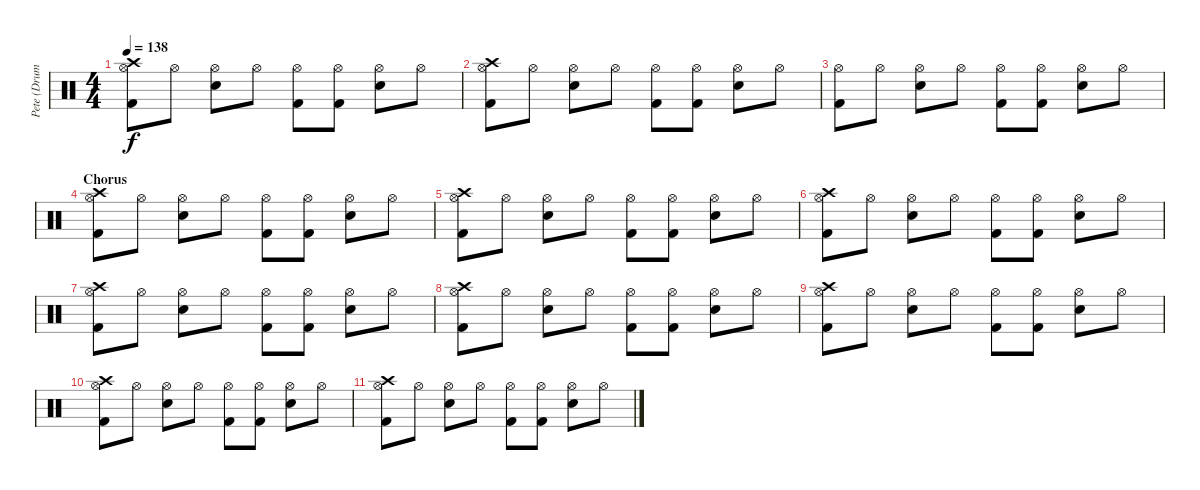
\track ("Pete (Drums)" "Pete (Drum") {instrument percussion}
\staff {score}
\articulation defaults
\ts (4 4)
\tempo 138
\clef neutral
\ks c
("Hi-Hat (open)" "Crash high (hit)" "Kick (hit) 2").8{dy f} "Hi-Hat (open)".8 ("Hi-Hat (open)" "Snare (hit) 2").8 "Hi-Hat (open)".8 ("Hi-Hat (open)" "Kick (hit) 2").8 ("Hi-Hat (open)" "Kick (hit) 2").8 ("Hi-Hat (open)" "Snare (hit) 2").8 "Hi-Hat (open)".8 |
("Hi-Hat (open)" "Crash high (hit)" "Kick (hit) 2").8 "Hi-Hat (open)".8 ("Hi-Hat (open)" "Snare (hit) 2").8 "Hi-Hat (open)".8 ("Hi-Hat (open)" "Kick (hit) 2").8 ("Hi-Hat (open)" "Kick (hit) 2").8 ("Hi-Hat (open)" "Snare (hit) 2").8 "Hi-Hat (open)".8 |
("Hi-Hat (open)" "Kick (hit) 2").8 "Hi-Hat (open)".8 ("Hi-Hat (open)" "Snare (hit) 2").8 "Hi-Hat (open)".8 ("Hi-Hat (open)" "Kick (hit) 2").8 ("Hi-Hat (open)" "Kick (hit) 2").8 ("Hi-Hat (open)" "Snare (hit) 2").8 "Hi-Hat (open)".8 |
\section ("" "Chorus")
("Hi-Hat (open)" "Crash high (hit)" "Kick (hit) 2").8 "Hi-Hat (open)".8 ("Hi-Hat (open)" "Snare (hit) 2").8 "Hi-Hat (open)".8 ("Hi-Hat (open)" "Kick (hit) 2").8 ("Hi-Hat (open)" "Kick (hit) 2").8 ("Hi-Hat (open)" "Snare (hit) 2").8 "Hi-Hat (open)".8 |
("Hi-Hat (open)" "Crash high (hit)" "Kick (hit) 2").8 "Hi-Hat (open)".8 ("Hi-Hat (open)" "Snare (hit) 2").8 "Hi-Hat (open)".8 ("Hi-Hat (open)" "Kick (hit) 2").8 ("Hi-Hat (open)" "Kick (hit) 2").8 ("Hi-Hat (open)" "Snare (hit) 2").8 "Hi-Hat (open)".8 |
("Hi-Hat (open)" "Crash high (hit)" "Kick (hit) 2").8 "Hi-Hat (open)".8 ("Hi-Hat (open)" "Snare (hit) 2").8 "Hi-Hat (open)".8 ("Hi-Hat (open)" "Kick (hit) 2").8 ("Hi-Hat (open)" "Kick (hit) 2").8 ("Hi-Hat (open)" "Snare (hit) 2").8 "Hi-Hat (open)".8 |
("Hi-Hat (open)" "Crash high (hit)" "Kick (hit) 2").8 "Hi-Hat (open)".8 ("Hi-Hat (open)" "Snare (hit) 2").8 "Hi-Hat (open)".8 ("Hi-Hat (open)" "Kick (hit) 2").8 ("Hi-Hat (open)" "Kick (hit) 2").8 ("Hi-Hat (open)" "Snare (hit) 2").8 "Hi-Hat (open)".8 |
("Hi-Hat (open)" "Crash high (hit)" "Kick (hit) 2").8 "Hi-Hat (open)".8 ("Hi-Hat (open)" "Snare (hit) 2").8 "Hi-Hat (open)".8 ("Hi-Hat (open)" "Kick (hit) 2").8 ("Hi-Hat (open)" "Kick (hit) 2").8 ("Hi-Hat (open)" "Snare (hit) 2").8 "Hi-Hat (open)".8 |
("Hi-Hat (open)" "Crash high (hit)" "Kick (hit) 2").8 "Hi-Hat (open)".8 ("Hi-Hat (open)" "Snare (hit) 2").8 "Hi-Hat (open)".8 ("Hi-Hat (open)" "Kick (hit) 2").8 ("Hi-Hat (open)" "Kick (hit) 2").8 ("Hi-Hat (open)" "Snare (hit) 2").8 "Hi-Hat (open)".8 |
("Hi-Hat (open)" "Crash high (hit)" "Kick (hit) 2").8 "Hi-Hat (open)".8 ("Hi-Hat (open)" "Snare (hit) 2").8 "Hi-Hat (open)".8 ("Hi-Hat (open)" "Kick (hit) 2").8 ("Hi-Hat (open)" "Kick (hit) 2").8 ("Hi-Hat (open)" "Snare (hit) 2").8 "Hi-Hat (open)".8 |
("Hi-Hat (open)" "Crash high (hit)" "Kick (hit) 2").8 "Hi-Hat (open)".8 ("Hi-Hat (open)" "Snare (hit) 2").8 "Hi-Hat (open)".8 ("Hi-Hat (open)" "Kick (hit) 2").8 ("Hi-Hat (open)" "Kick (hit) 2").8 ("Hi-Hat (open)" "Snare (hit) 2").8 "Hi-Hat (open)".8
